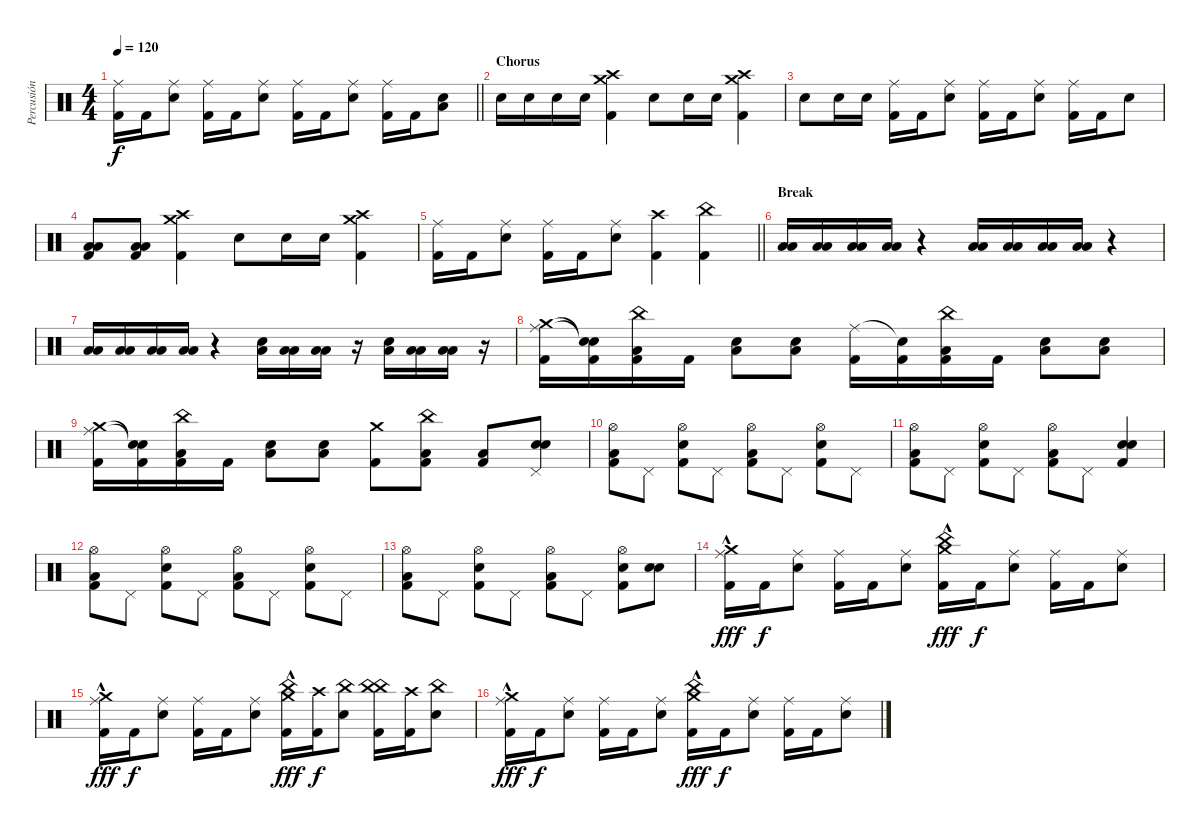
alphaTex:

\track ("Percusión" "Percusión") {instrument percussion}
\staff {score}
\articulation defaults
\ts (4 4)
\tempo 120
\clef neutral
\barLineRight lightlight
\ks c
("Ride (middle)" "Kick (hit) 2").16{dy f} "Kick (hit) 2".16 ("Ride (middle)" "Electric Snare (hit)").8 ("Ride (middle)" "Kick (hit) 2").16 "Kick (hit) 2".16 ("Ride (middle)" "Electric Snare (hit)").8 ("Ride (middle)" "Kick (hit) 2").16 "Kick (hit) 2".16 ("Ride (middle)" "Electric Snare (hit)").8 ("Ride (middle)" "Kick (hit) 2").16 "Kick (hit) 2".16 ("Electric Snare (hit)" "Low Tom (hit)").8 |
\section ("" "Chorus")
"Electric Snare (hit)".16 "Electric Snare (hit)".16 "Electric Snare (hit)".16 "Electric Snare (hit)".16 ("Crash medium (hit)" "Crash high (hit)" "Kick (hit) 2").4 "Electric Snare (hit)".8 "Electric Snare (hit)".16 "Electric Snare (hit)".16 ("Crash medium (hit)" "Crash high (hit)" "Kick (hit) 2").4 |
"Electric Snare (hit)".8 "Electric Snare (hit)".16 "Electric Snare (hit)".16 ("Ride (middle)" "Kick (hit) 2").16 "Kick (hit) 2".16 ("Ride (middle)" "Electric Snare (hit)").8 ("Ride (middle)" "Kick (hit) 2").16 "Kick (hit) 2".16 ("Ride (middle)" "Electric Snare (hit)").8 ("Ride (middle)" "Kick (hit) 2").16 "Kick (hit) 2".16 "Electric Snare (hit)".8 |
("Low Tom (hit)" "Low Floor Tom (hit)" "Kick (hit) 2").8 ("Low Tom (hit)" "Low Floor Tom (hit)" "Kick (hit) 2").8 ("Crash medium (hit)" "Crash high (hit)" "Kick (hit) 2").4 "Electric Snare (hit)".8 "Electric Snare (hit)".16 "Electric Snare (hit)".16 ("Crash medium (hit)" "Crash high (hit)" "Kick (hit) 2").4 |
\barLineRight lightlight
("Ride (middle)" "Kick (hit) 2").16 "Kick (hit) 2".16 ("Ride (middle)" "Electric Snare (hit)").8 ("Ride (middle)" "Kick (hit) 2").16 "Kick (hit) 2".16 ("Ride (middle)" "Electric Snare (hit)").8 ("Crash high (hit)" "Kick (hit) 2").4 ("China (hit)" "Kick (hit) 2").4 |
\section ("" "Break")
("Low Floor Tom (hit)" "Low Tom (hit)").16 ("Low Floor Tom (hit)" "Low Tom (hit)").16 ("Low Floor Tom (hit)" "Low Tom (hit)").16 ("Low Floor Tom (hit)" "Low Tom (hit)").16 r.4 ("Low Floor Tom (hit)" "Low Tom (hit)").16 ("Low Floor Tom (hit)" "Low Tom (hit)").16 ("Low Floor Tom (hit)" "Low Tom (hit)").16 ("Low Floor Tom (hit)" "Low Tom (hit)").16 r.4 |
("Low Floor Tom (hit)" "Low Tom (hit)").16 ("Low Floor Tom (hit)" "Low Tom (hit)").16 ("Low Floor Tom (hit)" "Low Tom (hit)").16 ("Low Floor Tom (hit)" "Low Tom (hit)").16 r.4 ("Snare (hit) 2" "Low Floor Tom (hit)").16 ("Low Tom (hit)" "Low Floor Tom (hit)").16 ("Low Tom (hit)" "Low Floor Tom (hit)").16 r.16 ("Snare (hit) 2" "Low Floor Tom (hit)").16 ("Low Tom (hit)" "Low Floor Tom (hit)").16 ("Low Tom (hit)" "Low Floor Tom (hit)").16 r.16 |
("Crash medium (hit)" "Ride (middle)" "Kick (hit) 2").16 ("Snare (hit)"{t} "Snare (hit)"{t} "Kick (hit) 2").16 ("China (hit)" "Low Tom (hit)" "Kick (hit) 2").16 "Kick (hit) 2".16 ("Low Floor Tom (hit)" "Snare (hit) 2").8 ("Low Floor Tom (hit)" "Snare (hit) 2").8 ("Ride (middle)" "Kick (hit) 2").16 ("Snare (hit)"{t} "Kick (hit) 2").16 ("China (hit)" "Low Tom (hit)" "Kick (hit) 2").16 "Kick (hit) 2".16 ("Low Floor Tom (hit)" "Snare (hit) 2").8 ("Low Floor Tom (hit)" "Snare (hit) 2").8 |
("Crash medium (hit)" "Ride (middle)" "Kick (hit) 2").16 ("Snare (hit)"{t} "Snare (hit)"{t} "Kick (hit) 2").16 ("China (hit)" "Low Tom (hit)" "Kick (hit) 2").16 "Kick (hit) 2".16 ("Low Floor Tom (hit)" "Snare (hit) 2").8 ("Low Floor Tom (hit)" "Snare (hit) 2").8 ("Crash medium (hit)" "Kick (hit) 2").8 ("China (hit)" "Low Tom (hit)" "Kick (hit) 2").8 ("Low Floor Tom (hit)" "Kick (hit) 2").8 ("Pedal Hi-Hat (hit)" "Electric Snare (hit)" "Snare (hit) 2").8 |
("Hi-Hat (open)" "Low Tom (hit)" "Kick (hit) 2").8 "Pedal Hi-Hat (hit)".8 ("Hi-Hat (open)" "Electric Snare (hit)" "Kick (hit) 2").8 "Pedal Hi-Hat (hit)".8 ("Hi-Hat (open)" "Low Tom (hit)" "Kick (hit) 2").8 "Pedal Hi-Hat (hit)".8 ("Hi-Hat (open)" "Electric Snare (hit)" "Kick (hit) 2").8 "Pedal Hi-Hat (hit)".8 |
("Hi-Hat (open)" "Low Tom (hit)" "Kick (hit) 2").8 "Pedal Hi-Hat (hit)".8 ("Hi-Hat (open)" "Electric Snare (hit)" "Kick (hit) 2").8 "Pedal Hi-Hat (hit)".8 ("Hi-Hat (open)" "Low Tom (hit)" "Kick (hit) 2").8 "Pedal Hi-Hat (hit)".8 ("Snare (hit) 2" "Electric Snare (hit)" "Kick (hit) 2").4 |
("Hi-Hat (open)" "Low Tom (hit)" "Kick (hit) 2").8 "Pedal Hi-Hat (hit)".8 ("Hi-Hat (open)" "Electric Snare (hit)" "Kick (hit) 2").8 "Pedal Hi-Hat (hit)".8 ("Hi-Hat (open)" "Low Tom (hit)" "Kick (hit) 2").8 "Pedal Hi-Hat (hit)".8 ("Hi-Hat (open)" "Electric Snare (hit)" "Kick (hit) 2").8 "Pedal Hi-Hat (hit)".8 |
("Hi-Hat (open)" "Low Tom (hit)" "Kick (hit) 2").8 "Pedal Hi-Hat (hit)".8 ("Hi-Hat (open)" "Electric Snare (hit)" "Kick (hit) 2").8 "Pedal Hi-Hat (hit)".8 ("Hi-Hat (open)" "Low Tom (hit)" "Kick (hit) 2").8 "Pedal Hi-Hat (hit)".8 ("Hi-Hat (open)" "Electric Snare (hit)" "Kick (hit) 2").8 ("Snare (hit) 2" "Electric Snare (hit)").8 |
("Crash medium (hit)"{hac} "Ride (middle)"{hac} "Kick (hit) 2").16{dy fff} "Kick (hit) 2".16{dy f} ("Ride (middle)" "Electric Snare (hit)").8 ("Ride (middle)" "Kick (hit) 2").16 "Kick (hit) 2".16 ("Ride (middle)" "Electric Snare (hit)").8 ("China (hit)"{hac} "Crash medium (hit)"{hac} "Kick (hit) 2").16{dy fff} "Kick (hit) 2".16{dy f} ("Ride (middle)" "Electric Snare (hit)").8 ("Ride (middle)" "Kick (hit) 2").16 "Kick (hit) 2".16 ("Ride (middle)" "Electric Snare (hit)").8 |
("Crash medium (hit)"{hac} "Ride (middle)"{hac} "Kick (hit) 2").16{dy fff} "Kick (hit) 2".16{dy f} ("Ride (middle)" "Electric Snare (hit)").8 ("Ride (middle)" "Kick (hit) 2").16 "Kick (hit) 2".16 ("Ride (middle)" "Electric Snare (hit)").8 ("China (hit)"{hac} "Crash medium (hit)"{hac} "Kick (hit) 2").16{dy fff} ("Crash high (hit)" "Kick (hit) 2").16{dy f} ("China (hit)" "Electric Snare (hit)").8 ("China (hit)" "China (hit)" "Kick (hit) 2").16 ("Crash high (hit)" "Kick (hit) 2").16 ("China (hit)" "Electric Snare (hit)").8 |
("Crash medium (hit)"{hac} "Ride (middle)"{hac} "Kick (hit) 2").16{dy fff} "Kick (hit) 2".16{dy f} ("Ride (middle)" "Electric Snare (hit)").8 ("Ride (middle)" "Kick (hit) 2").16 "Kick (hit) 2".16 ("Ride (middle)" "Electric Snare (hit)").8 ("China (hit)"{hac} "Crash medium (hit)"{hac} "Kick (hit) 2").16{dy fff} "Kick (hit) 2".16{dy f} ("Ride (middle)" "Electric Snare (hit)").8 ("Ride (middle)" "Kick (hit) 2").16 "Kick (hit) 2".16 ("Ride (middle)" "Electric Snare (hit)").8
